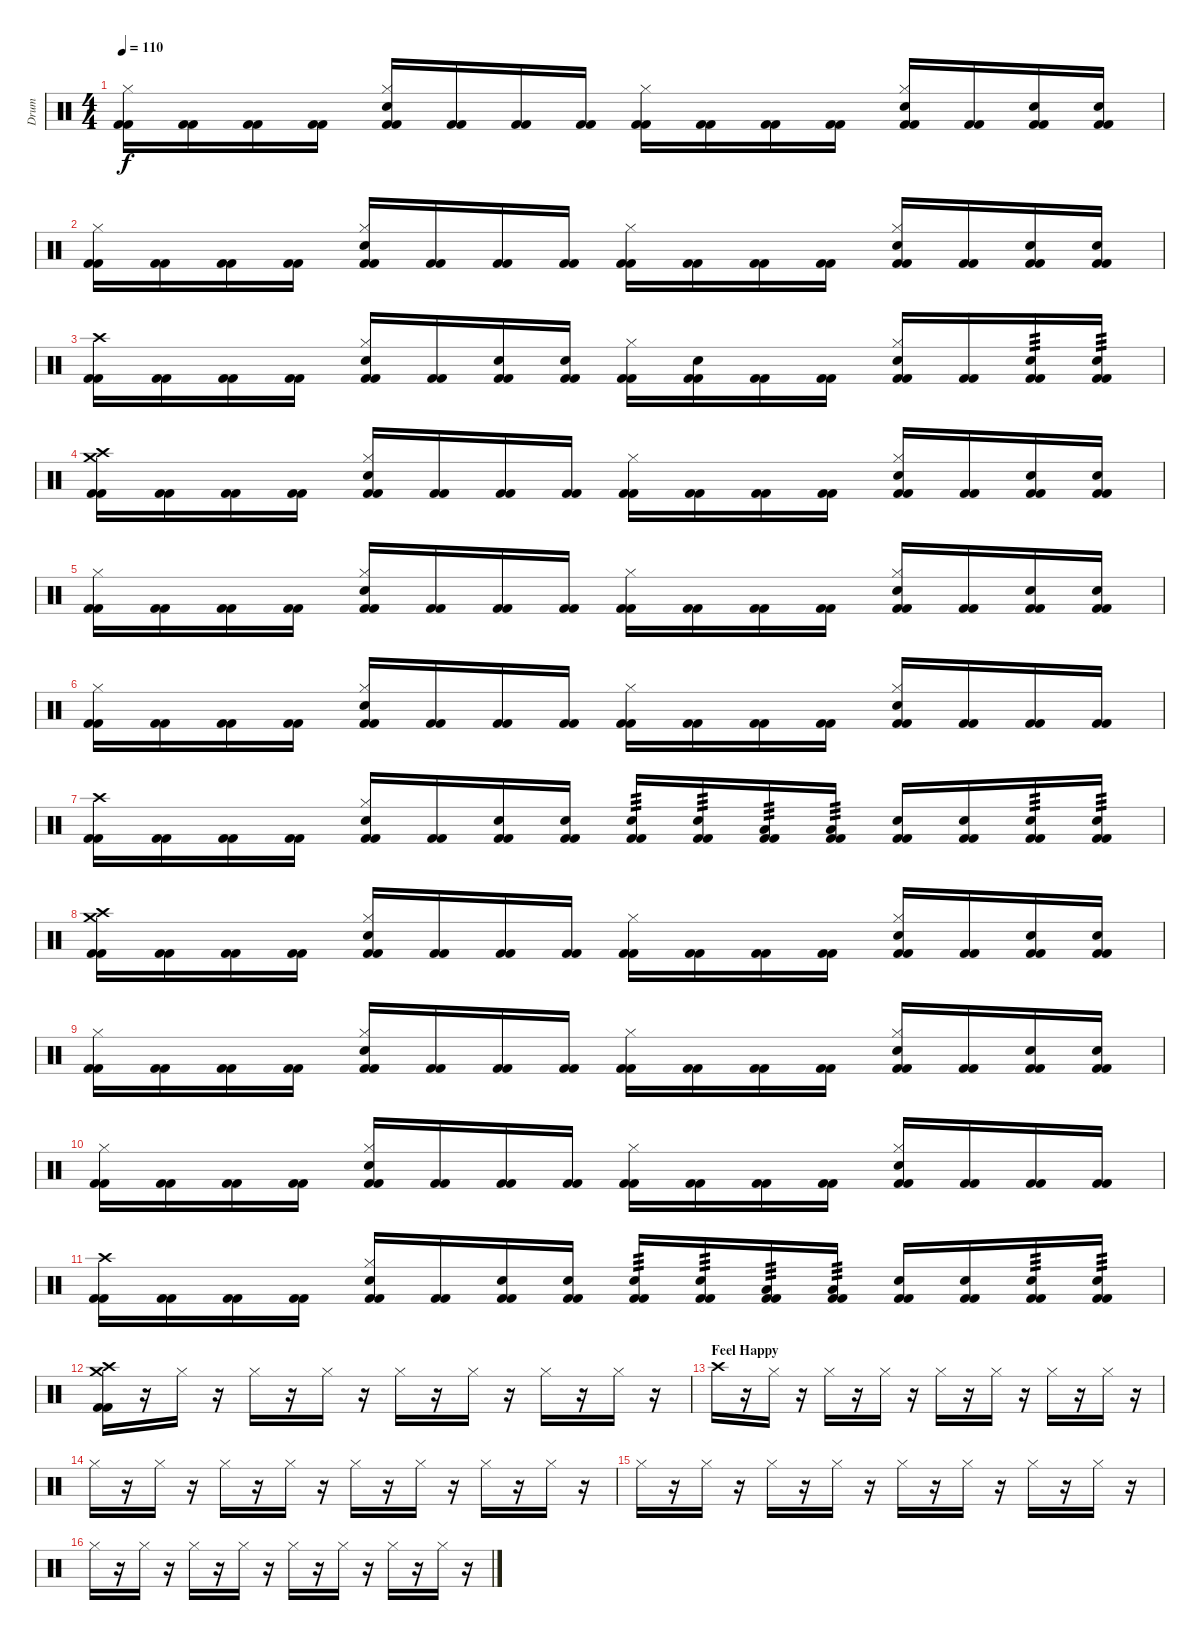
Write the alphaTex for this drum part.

\track ("Drum" "Drum") {instrument percussion}
\staff {score}
\articulation defaults
\ts (4 4)
\tempo 110
\clef neutral
\ks c
("Kick (hit) 2" "Kick (hit) 2" "Hi-Hat (closed)").16{dy f} ("Kick (hit) 2" "Kick (hit) 2").16 ("Kick (hit) 2" "Kick (hit) 2").16 ("Kick (hit) 2" "Kick (hit) 2").16 ("Kick (hit) 2" "Kick (hit) 2" "Electric Snare (hit)" "Hi-Hat (closed)").16 ("Kick (hit) 2" "Kick (hit) 2").16 ("Kick (hit) 2" "Kick (hit) 2").16 ("Kick (hit) 2" "Kick (hit) 2").16 ("Kick (hit) 2" "Kick (hit) 2" "Hi-Hat (closed)").16 ("Kick (hit) 2" "Kick (hit) 2").16 ("Kick (hit) 2" "Kick (hit) 2").16 ("Kick (hit) 2" "Kick (hit) 2").16 ("Kick (hit) 2" "Kick (hit) 2" "Electric Snare (hit)" "Hi-Hat (closed)").16 ("Kick (hit) 2" "Kick (hit) 2").16 ("Kick (hit) 2" "Kick (hit) 2" "Electric Snare (hit)").16 ("Kick (hit) 2" "Kick (hit) 2" "Electric Snare (hit)").16 |
("Kick (hit) 2" "Kick (hit) 2" "Hi-Hat (closed)").16 ("Kick (hit) 2" "Kick (hit) 2").16 ("Kick (hit) 2" "Kick (hit) 2").16 ("Kick (hit) 2" "Kick (hit) 2").16 ("Kick (hit) 2" "Kick (hit) 2" "Electric Snare (hit)" "Hi-Hat (closed)").16 ("Kick (hit) 2" "Kick (hit) 2").16 ("Kick (hit) 2" "Kick (hit) 2").16 ("Kick (hit) 2" "Kick (hit) 2").16 ("Kick (hit) 2" "Kick (hit) 2" "Hi-Hat (closed)").16 ("Kick (hit) 2" "Kick (hit) 2").16 ("Kick (hit) 2" "Kick (hit) 2").16 ("Kick (hit) 2" "Kick (hit) 2").16 ("Kick (hit) 2" "Kick (hit) 2" "Electric Snare (hit)" "Hi-Hat (closed)").16 ("Kick (hit) 2" "Kick (hit) 2").16 ("Kick (hit) 2" "Kick (hit) 2" "Electric Snare (hit)").16 ("Kick (hit) 2" "Kick (hit) 2" "Electric Snare (hit)").16 |
("Kick (hit) 2" "Kick (hit) 2" "Crash high (hit)").16 ("Kick (hit) 2" "Kick (hit) 2").16 ("Kick (hit) 2" "Kick (hit) 2").16 ("Kick (hit) 2" "Kick (hit) 2").16 ("Kick (hit) 2" "Kick (hit) 2" "Electric Snare (hit)" "Hi-Hat (closed)").16 ("Kick (hit) 2" "Kick (hit) 2").16 ("Kick (hit) 2" "Kick (hit) 2" "Electric Snare (hit)").16 ("Kick (hit) 2" "Kick (hit) 2" "Electric Snare (hit)").16 ("Kick (hit) 2" "Kick (hit) 2" "Hi-Hat (closed)").16 ("Kick (hit) 2" "Kick (hit) 2" "Electric Snare (hit)").16 ("Kick (hit) 2" "Kick (hit) 2").16 ("Kick (hit) 2" "Kick (hit) 2").16 ("Kick (hit) 2" "Kick (hit) 2" "Electric Snare (hit)" "Hi-Hat (closed)").16 ("Kick (hit) 2" "Kick (hit) 2").16 ("Kick (hit) 2" "Kick (hit) 2" "Electric Snare (hit)").16{tp 3} ("Kick (hit) 2" "Kick (hit) 2" "Electric Snare (hit)").16{tp 3} |
("Kick (hit) 2" "Kick (hit) 2" "Crash high (hit)" "Crash medium (hit)").16 ("Kick (hit) 2" "Kick (hit) 2").16 ("Kick (hit) 2" "Kick (hit) 2").16 ("Kick (hit) 2" "Kick (hit) 2").16 ("Kick (hit) 2" "Kick (hit) 2" "Electric Snare (hit)" "Hi-Hat (closed)").16 ("Kick (hit) 2" "Kick (hit) 2").16 ("Kick (hit) 2" "Kick (hit) 2").16 ("Kick (hit) 2" "Kick (hit) 2").16 ("Kick (hit) 2" "Kick (hit) 2" "Hi-Hat (closed)").16 ("Kick (hit) 2" "Kick (hit) 2").16 ("Kick (hit) 2" "Kick (hit) 2").16 ("Kick (hit) 2" "Kick (hit) 2").16 ("Kick (hit) 2" "Kick (hit) 2" "Electric Snare (hit)" "Hi-Hat (closed)").16 ("Kick (hit) 2" "Kick (hit) 2").16 ("Kick (hit) 2" "Kick (hit) 2" "Electric Snare (hit)").16 ("Kick (hit) 2" "Kick (hit) 2" "Electric Snare (hit)").16 |
("Kick (hit) 2" "Kick (hit) 2" "Hi-Hat (closed)").16 ("Kick (hit) 2" "Kick (hit) 2").16 ("Kick (hit) 2" "Kick (hit) 2").16 ("Kick (hit) 2" "Kick (hit) 2").16 ("Kick (hit) 2" "Kick (hit) 2" "Electric Snare (hit)" "Hi-Hat (closed)").16 ("Kick (hit) 2" "Kick (hit) 2").16 ("Kick (hit) 2" "Kick (hit) 2").16 ("Kick (hit) 2" "Kick (hit) 2").16 ("Kick (hit) 2" "Kick (hit) 2" "Hi-Hat (closed)").16 ("Kick (hit) 2" "Kick (hit) 2").16 ("Kick (hit) 2" "Kick (hit) 2").16 ("Kick (hit) 2" "Kick (hit) 2").16 ("Kick (hit) 2" "Kick (hit) 2" "Electric Snare (hit)" "Hi-Hat (closed)").16 ("Kick (hit) 2" "Kick (hit) 2").16 ("Kick (hit) 2" "Kick (hit) 2" "Electric Snare (hit)").16 ("Kick (hit) 2" "Kick (hit) 2" "Electric Snare (hit)").16 |
("Kick (hit) 2" "Kick (hit) 2" "Hi-Hat (closed)").16 ("Kick (hit) 2" "Kick (hit) 2").16 ("Kick (hit) 2" "Kick (hit) 2").16 ("Kick (hit) 2" "Kick (hit) 2").16 ("Kick (hit) 2" "Kick (hit) 2" "Electric Snare (hit)" "Hi-Hat (closed)").16 ("Kick (hit) 2" "Kick (hit) 2").16 ("Kick (hit) 2" "Kick (hit) 2").16 ("Kick (hit) 2" "Kick (hit) 2").16 ("Kick (hit) 2" "Kick (hit) 2" "Hi-Hat (closed)").16 ("Kick (hit) 2" "Kick (hit) 2").16 ("Kick (hit) 2" "Kick (hit) 2").16 ("Kick (hit) 2" "Kick (hit) 2").16 ("Kick (hit) 2" "Kick (hit) 2" "Electric Snare (hit)" "Hi-Hat (closed)").16 ("Kick (hit) 2" "Kick (hit) 2").16 ("Kick (hit) 2" "Kick (hit) 2").16 ("Kick (hit) 2" "Kick (hit) 2").16 |
("Kick (hit) 2" "Kick (hit) 2" "Crash high (hit)").16 ("Kick (hit) 2" "Kick (hit) 2").16 ("Kick (hit) 2" "Kick (hit) 2").16 ("Kick (hit) 2" "Kick (hit) 2").16 ("Kick (hit) 2" "Kick (hit) 2" "Electric Snare (hit)" "Hi-Hat (closed)").16 ("Kick (hit) 2" "Kick (hit) 2").16 ("Kick (hit) 2" "Kick (hit) 2" "Electric Snare (hit)").16 ("Kick (hit) 2" "Kick (hit) 2" "Electric Snare (hit)").16 ("Kick (hit) 2" "Kick (hit) 2" "Electric Snare (hit)").16{tp 3} ("Kick (hit) 2" "Kick (hit) 2" "Electric Snare (hit)").16{tp 3} ("Kick (hit) 2" "Kick (hit) 2" "Low Floor Tom (hit)").16{tp 3} ("Kick (hit) 2" "Kick (hit) 2" "Low Floor Tom (hit)").16{tp 3} ("Kick (hit) 2" "Kick (hit) 2" "Electric Snare (hit)").16 ("Kick (hit) 2" "Kick (hit) 2" "Electric Snare (hit)").16 ("Kick (hit) 2" "Kick (hit) 2" "Electric Snare (hit)").16{tp 3} ("Kick (hit) 2" "Kick (hit) 2" "Electric Snare (hit)").16{tp 3} |
("Kick (hit) 2" "Kick (hit) 2" "Crash high (hit)" "Crash medium (hit)").16 ("Kick (hit) 2" "Kick (hit) 2").16 ("Kick (hit) 2" "Kick (hit) 2").16 ("Kick (hit) 2" "Kick (hit) 2").16 ("Kick (hit) 2" "Kick (hit) 2" "Electric Snare (hit)" "Hi-Hat (closed)").16 ("Kick (hit) 2" "Kick (hit) 2").16 ("Kick (hit) 2" "Kick (hit) 2").16 ("Kick (hit) 2" "Kick (hit) 2").16 ("Kick (hit) 2" "Kick (hit) 2" "Hi-Hat (closed)").16 ("Kick (hit) 2" "Kick (hit) 2").16 ("Kick (hit) 2" "Kick (hit) 2").16 ("Kick (hit) 2" "Kick (hit) 2").16 ("Kick (hit) 2" "Kick (hit) 2" "Electric Snare (hit)" "Hi-Hat (closed)").16 ("Kick (hit) 2" "Kick (hit) 2").16 ("Kick (hit) 2" "Kick (hit) 2" "Electric Snare (hit)").16 ("Kick (hit) 2" "Kick (hit) 2" "Electric Snare (hit)").16 |
("Kick (hit) 2" "Kick (hit) 2" "Hi-Hat (closed)").16 ("Kick (hit) 2" "Kick (hit) 2").16 ("Kick (hit) 2" "Kick (hit) 2").16 ("Kick (hit) 2" "Kick (hit) 2").16 ("Kick (hit) 2" "Kick (hit) 2" "Electric Snare (hit)" "Hi-Hat (closed)").16 ("Kick (hit) 2" "Kick (hit) 2").16 ("Kick (hit) 2" "Kick (hit) 2").16 ("Kick (hit) 2" "Kick (hit) 2").16 ("Kick (hit) 2" "Kick (hit) 2" "Hi-Hat (closed)").16 ("Kick (hit) 2" "Kick (hit) 2").16 ("Kick (hit) 2" "Kick (hit) 2").16 ("Kick (hit) 2" "Kick (hit) 2").16 ("Kick (hit) 2" "Kick (hit) 2" "Electric Snare (hit)" "Hi-Hat (closed)").16 ("Kick (hit) 2" "Kick (hit) 2").16 ("Kick (hit) 2" "Kick (hit) 2" "Electric Snare (hit)").16 ("Kick (hit) 2" "Kick (hit) 2" "Electric Snare (hit)").16 |
("Kick (hit) 2" "Kick (hit) 2" "Hi-Hat (closed)").16 ("Kick (hit) 2" "Kick (hit) 2").16 ("Kick (hit) 2" "Kick (hit) 2").16 ("Kick (hit) 2" "Kick (hit) 2").16 ("Kick (hit) 2" "Kick (hit) 2" "Electric Snare (hit)" "Hi-Hat (closed)").16 ("Kick (hit) 2" "Kick (hit) 2").16 ("Kick (hit) 2" "Kick (hit) 2").16 ("Kick (hit) 2" "Kick (hit) 2").16 ("Kick (hit) 2" "Kick (hit) 2" "Hi-Hat (closed)").16 ("Kick (hit) 2" "Kick (hit) 2").16 ("Kick (hit) 2" "Kick (hit) 2").16 ("Kick (hit) 2" "Kick (hit) 2").16 ("Kick (hit) 2" "Kick (hit) 2" "Electric Snare (hit)" "Hi-Hat (closed)").16 ("Kick (hit) 2" "Kick (hit) 2").16 ("Kick (hit) 2" "Kick (hit) 2").16 ("Kick (hit) 2" "Kick (hit) 2").16 |
("Kick (hit) 2" "Kick (hit) 2" "Crash high (hit)").16 ("Kick (hit) 2" "Kick (hit) 2").16 ("Kick (hit) 2" "Kick (hit) 2").16 ("Kick (hit) 2" "Kick (hit) 2").16 ("Kick (hit) 2" "Kick (hit) 2" "Electric Snare (hit)" "Hi-Hat (closed)").16 ("Kick (hit) 2" "Kick (hit) 2").16 ("Kick (hit) 2" "Kick (hit) 2" "Electric Snare (hit)").16 ("Kick (hit) 2" "Kick (hit) 2" "Electric Snare (hit)").16 ("Kick (hit) 2" "Kick (hit) 2" "Electric Snare (hit)").16{tp 3} ("Kick (hit) 2" "Kick (hit) 2" "Electric Snare (hit)").16{tp 3} ("Kick (hit) 2" "Kick (hit) 2" "Low Floor Tom (hit)").16{tp 3} ("Kick (hit) 2" "Kick (hit) 2" "Low Floor Tom (hit)").16{tp 3} ("Kick (hit) 2" "Kick (hit) 2" "Electric Snare (hit)").16 ("Kick (hit) 2" "Kick (hit) 2" "Electric Snare (hit)").16 ("Kick (hit) 2" "Kick (hit) 2" "Electric Snare (hit)").16{tp 3} ("Kick (hit) 2" "Kick (hit) 2" "Electric Snare (hit)").16{tp 3} |
("Kick (hit) 2" "Kick (hit) 2" "Crash medium (hit)" "Crash high (hit)").16 r.16 "Hi-Hat (closed)".16 r.16 "Hi-Hat (closed)".16 r.16 "Hi-Hat (closed)".16 r.16 "Hi-Hat (closed)".16 r.16 "Hi-Hat (closed)".16 r.16 "Hi-Hat (closed)".16 r.16 "Hi-Hat (closed)".16 r.16 |
\section ("" "Feel Happy")
"Crash high (hit)".16 r.16 "Hi-Hat (closed)".16 r.16 "Hi-Hat (closed)".16 r.16 "Hi-Hat (closed)".16 r.16 "Hi-Hat (closed)".16 r.16 "Hi-Hat (closed)".16 r.16 "Hi-Hat (closed)".16 r.16 "Hi-Hat (closed)".16 r.16 |
"Hi-Hat (closed)".16 r.16 "Hi-Hat (closed)".16 r.16 "Hi-Hat (closed)".16 r.16 "Hi-Hat (closed)".16 r.16 "Hi-Hat (closed)".16 r.16 "Hi-Hat (closed)".16 r.16 "Hi-Hat (closed)".16 r.16 "Hi-Hat (closed)".16 r.16 |
"Hi-Hat (closed)".16 r.16 "Hi-Hat (closed)".16 r.16 "Hi-Hat (closed)".16 r.16 "Hi-Hat (closed)".16 r.16 "Hi-Hat (closed)".16 r.16 "Hi-Hat (closed)".16 r.16 "Hi-Hat (closed)".16 r.16 "Hi-Hat (closed)".16 r.16 |
"Hi-Hat (closed)".16 r.16 "Hi-Hat (closed)".16 r.16 "Hi-Hat (closed)".16 r.16 "Hi-Hat (closed)".16 r.16 "Hi-Hat (closed)".16 r.16 "Hi-Hat (closed)".16 r.16 "Hi-Hat (closed)".16 r.16 "Hi-Hat (closed)".16 r.16
